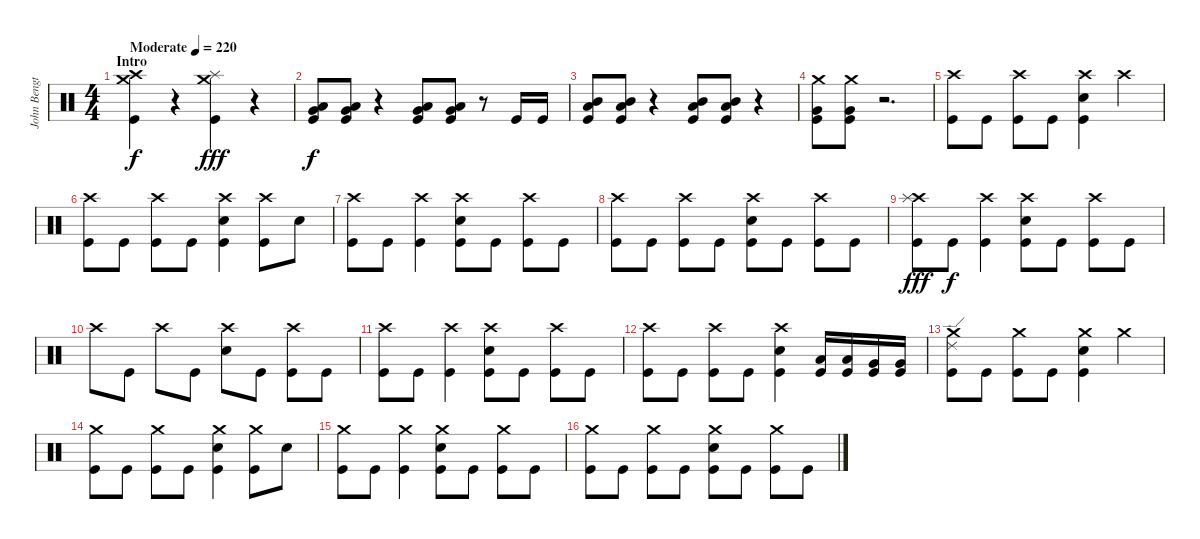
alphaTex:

\track ("John Bengtsson" "John Bengt") {instrument percussion}
\staff {score}
\articulation defaults
\ts (4 4)
\section ("" "Intro")
\tempo (220 "Moderate")
\clef neutral
\ks c
("Crash medium (hit)" "Crash high (hit)" "Kick (hit)").4{dy f} r.4 ("Splash (hit)" "Crash medium (hit)" "Kick (hit)").4{dy fff} r.4 |
("Low Tom (hit)" "Very Low Tom (hit)" "Kick (hit)").8{dy f} ("Low Tom (hit)" "Very Low Tom (hit)" "Kick (hit)").8 r.4 ("Low Tom (hit)" "Very Low Tom (hit)" "Kick (hit)").8 ("Low Tom (hit)" "Very Low Tom (hit)" "Kick (hit)").8 r.8 "Kick (hit)".16 "Kick (hit)".16 |
("Mid Tom (hit)" "Low Tom (hit)" "Kick (hit)").8 ("Mid Tom (hit)" "Low Tom (hit)" "Kick (hit)").8 r.4 ("Mid Tom (hit)" "Low Tom (hit)" "Kick (hit)").8 ("Mid Tom (hit)" "Low Tom (hit)" "Kick (hit)").8 r.4 |
("Crash medium (hit)" "Very Low Tom (hit)" "Kick (hit)").8 ("Crash medium (hit)" "Very Low Tom (hit)" "Kick (hit)").8 r.2{d volume 1} |
("Crash high (hit)" "Kick (hit)").8{volume 13} "Kick (hit)".8 ("Crash high (hit)" "Kick (hit)").8 "Kick (hit)".8 ("Crash high (hit)" "Snare (hit) 2" "Kick (hit)").4 "Crash high (hit)".4 |
("Crash high (hit)" "Kick (hit)").8 "Kick (hit)".8 ("Crash high (hit)" "Kick (hit)").8 "Kick (hit)".8 ("Crash high (hit)" "Snare (hit) 2" "Kick (hit)").4 ("Crash high (hit)" "Kick (hit)").8 "Snare (hit) 2".8 |
("Crash high (hit)" "Kick (hit)").8 "Kick (hit)".8 ("Crash high (hit)" "Kick (hit)").4 ("Crash high (hit)" "Snare (hit) 2" "Kick (hit)").8 "Kick (hit)".8 ("Crash high (hit)" "Kick (hit)").8 "Kick (hit)".8 |
("Crash high (hit)" "Kick (hit)").8 "Kick (hit)".8 ("Crash high (hit)" "Kick (hit)").8 "Kick (hit)".8 ("Crash high (hit)" "Snare (hit) 2" "Kick (hit)").8 "Kick (hit)".8 ("Crash high (hit)" "Kick (hit)").8 "Kick (hit)".8 |
("Crash high (hit)" "Splash (hit)" "Kick (hit)").8{dy fff} "Kick (hit)".8{dy f} ("Crash high (hit)" "Kick (hit)").4 ("Crash high (hit)" "Snare (hit) 2" "Kick (hit)").8 "Kick (hit)".8 ("Crash high (hit)" "Kick (hit)").8 "Kick (hit)".8 |
"Crash high (hit)".8 "Kick (hit)".8 "Crash high (hit)".8 "Kick (hit)".8 ("Crash high (hit)" "Snare (hit) 2").8 "Kick (hit)".8 ("Crash high (hit)" "Kick (hit)").8 "Kick (hit)".8 |
("Crash high (hit)" "Kick (hit)").8 "Kick (hit)".8 ("Crash high (hit)" "Kick (hit)").4 ("Crash high (hit)" "Snare (hit) 2" "Kick (hit)").8 "Kick (hit)".8 ("Crash high (hit)" "Kick (hit)").8 "Kick (hit)".8 |
("Crash high (hit)" "Kick (hit)").8 "Kick (hit)".8 ("Crash high (hit)" "Kick (hit)").8 "Kick (hit)".8 ("Crash high (hit)" "Snare (hit) 2" "Kick (hit)").4 ("Low Tom (hit)" "Kick (hit)").16 ("Low Tom (hit)" "Kick (hit)").16 ("Very Low Tom (hit)" "Kick (hit)").16 ("Very Low Tom (hit)" "Kick (hit)").16 |
("Crash medium (hit)" "Ride (edge) 2" "Kick (hit)").8 "Kick (hit)".8 ("Crash medium (hit)" "Kick (hit)").8 "Kick (hit)".8 ("Crash medium (hit)" "Snare (hit) 2" "Kick (hit)").4 "Crash medium (hit)".4 |
("Crash medium (hit)" "Kick (hit)").8 "Kick (hit)".8 ("Crash medium (hit)" "Kick (hit)").8 "Kick (hit)".8 ("Crash medium (hit)" "Snare (hit) 2" "Kick (hit)").4 ("Crash medium (hit)" "Kick (hit)").8 "Snare (hit) 2".8 |
("Crash medium (hit)" "Kick (hit)").8 "Kick (hit)".8 ("Crash medium (hit)" "Kick (hit)").4 ("Crash medium (hit)" "Snare (hit) 2" "Kick (hit)").8 "Kick (hit)".8 ("Crash medium (hit)" "Kick (hit)").8 "Kick (hit)".8 |
("Crash medium (hit)" "Kick (hit)").8 "Kick (hit)".8 ("Crash medium (hit)" "Kick (hit)").8 "Kick (hit)".8 ("Crash medium (hit)" "Snare (hit) 2" "Kick (hit)").8 "Kick (hit)".8 ("Crash medium (hit)" "Kick (hit)").8 "Kick (hit)".8
